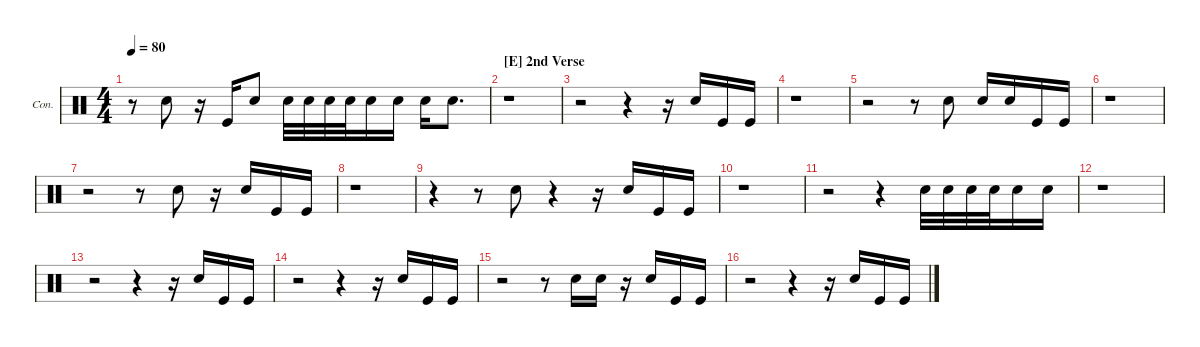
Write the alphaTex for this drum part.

\defaultSystemsLayout 4
\hideDynamics
\bracketExtendMode groupsimilarinstruments
\firstSystemTrackNameOrientation horizontal
\otherSystemsTrackNameOrientation horizontal
\track ("Congas" "Con.") {multiBarRest instrument percussion}
\staff {score}
\articulation defaults
\ts (4 4)
\tempo 80
\clef neutral
\ks c
r.8{dy mf} "Snare (hit) 2".8 r.16 "Kick (hit)".16 "Snare (hit) 2".8 "Snare (hit) 2".32 "Snare (hit) 2".32 "Snare (hit) 2".32 "Snare (hit) 2".32 "Snare (hit) 2".16 "Snare (hit) 2".16 "Snare (hit) 2".16 "Snare (hit) 2".8{d} |
\section ("E" "2nd Verse")
r.1 |
r.2 r.4 r.16 "Snare (hit) 2".16 "Kick (hit)".16 "Kick (hit)".16 |
r.1 |
r.2 r.8 "Snare (hit) 2".8 "Snare (hit) 2".16 "Snare (hit) 2".16 "Kick (hit)".16 "Kick (hit)".16 |
r.1 |
r.2 r.8 "Snare (hit) 2".8 r.16 "Snare (hit) 2".16 "Kick (hit)".16 "Kick (hit)".16 |
r.1 |
r.4 r.8 "Snare (hit) 2".8 r.4 r.16 "Snare (hit) 2".16 "Kick (hit)".16 "Kick (hit)".16 |
r.1 |
r.2 r.4 "Snare (hit) 2".32 "Snare (hit) 2".32 "Snare (hit) 2".32 "Snare (hit) 2".32 "Snare (hit) 2".16 "Snare (hit) 2".16 |
r.1 |
r.2 r.4 r.16 "Snare (hit) 2".16 "Kick (hit)".16 "Kick (hit)".16 |
r.2 r.4 r.16 "Snare (hit) 2".16 "Kick (hit)".16 "Kick (hit)".16 |
r.2 r.8 "Snare (hit) 2".16 "Snare (hit) 2".16 r.16 "Snare (hit) 2".16 "Kick (hit)".16 "Kick (hit)".16 |
r.2 r.4 r.16 "Snare (hit) 2".16 "Kick (hit)".16 "Kick (hit)".16
